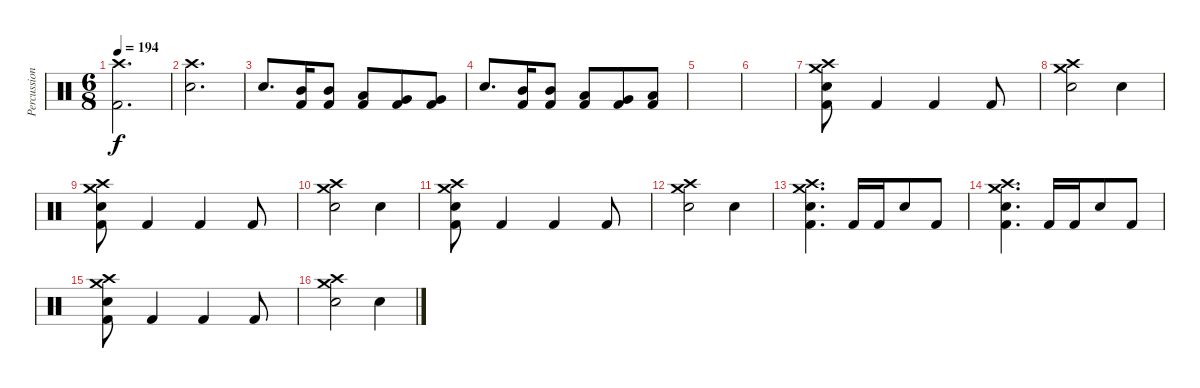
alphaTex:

\track ("Percussion" "Percussion") {instrument percussion}
\staff {score}
\articulation defaults
\ts (6 8)
\tempo 194
\clef neutral
\ks c
("Kick (hit) 2" "Crash high (hit)").2{d dy f} |
("Snare (hit) 2" "Crash high (hit)").2{d} |
"Snare (hit) 2".8{d} ("Kick (hit) 2" "Mid Tom (hit)").16 ("Kick (hit) 2" "Mid Tom (hit)").8 ("Kick (hit) 2" "Low Tom (hit)").8 ("Kick (hit) 2" "Very Low Tom (hit)").8 ("Kick (hit) 2" "Very Low Tom (hit)").8 |
"Snare (hit) 2".8{d} ("Kick (hit) 2" "Mid Tom (hit)").16 ("Kick (hit) 2" "Mid Tom (hit)").8 ("Kick (hit) 2" "Low Tom (hit)").8 ("Kick (hit) 2" "Very Low Tom (hit)").8 ("Kick (hit) 2" "Low Floor Tom (hit)").8 |
|
|
("Kick (hit) 2" "Snare (hit) 2" "Crash high (hit)" "Crash medium (hit)").8 "Kick (hit) 2".4 "Kick (hit) 2".4 "Kick (hit) 2".8 |
("Snare (hit) 2" "Crash medium (hit)" "Crash high (hit)").2 "Snare (hit) 2".4 |
("Kick (hit) 2" "Snare (hit) 2" "Crash high (hit)" "Crash medium (hit)").8 "Kick (hit) 2".4 "Kick (hit) 2".4 "Kick (hit) 2".8 |
("Snare (hit) 2" "Crash medium (hit)" "Crash high (hit)").2 "Snare (hit) 2".4 |
("Kick (hit) 2" "Snare (hit) 2" "Crash high (hit)" "Crash medium (hit)").8 "Kick (hit) 2".4 "Kick (hit) 2".4 "Kick (hit) 2".8 |
("Snare (hit) 2" "Crash medium (hit)" "Crash high (hit)").2 "Snare (hit) 2".4 |
("Kick (hit) 2" "Snare (hit) 2" "Crash high (hit)" "Crash medium (hit)").4{d} "Kick (hit) 2".16 "Kick (hit) 2".16 "Snare (hit) 2".8 "Kick (hit) 2".8 |
("Kick (hit) 2" "Snare (hit) 2" "Crash high (hit)" "Crash medium (hit)").4{d} "Kick (hit) 2".16 "Kick (hit) 2".16 "Snare (hit) 2".8 "Kick (hit) 2".8 |
("Kick (hit) 2" "Snare (hit) 2" "Crash high (hit)" "Crash medium (hit)").8 "Kick (hit) 2".4 "Kick (hit) 2".4 "Kick (hit) 2".8 |
("Snare (hit) 2" "Crash medium (hit)" "Crash high (hit)").2 "Snare (hit) 2".4
